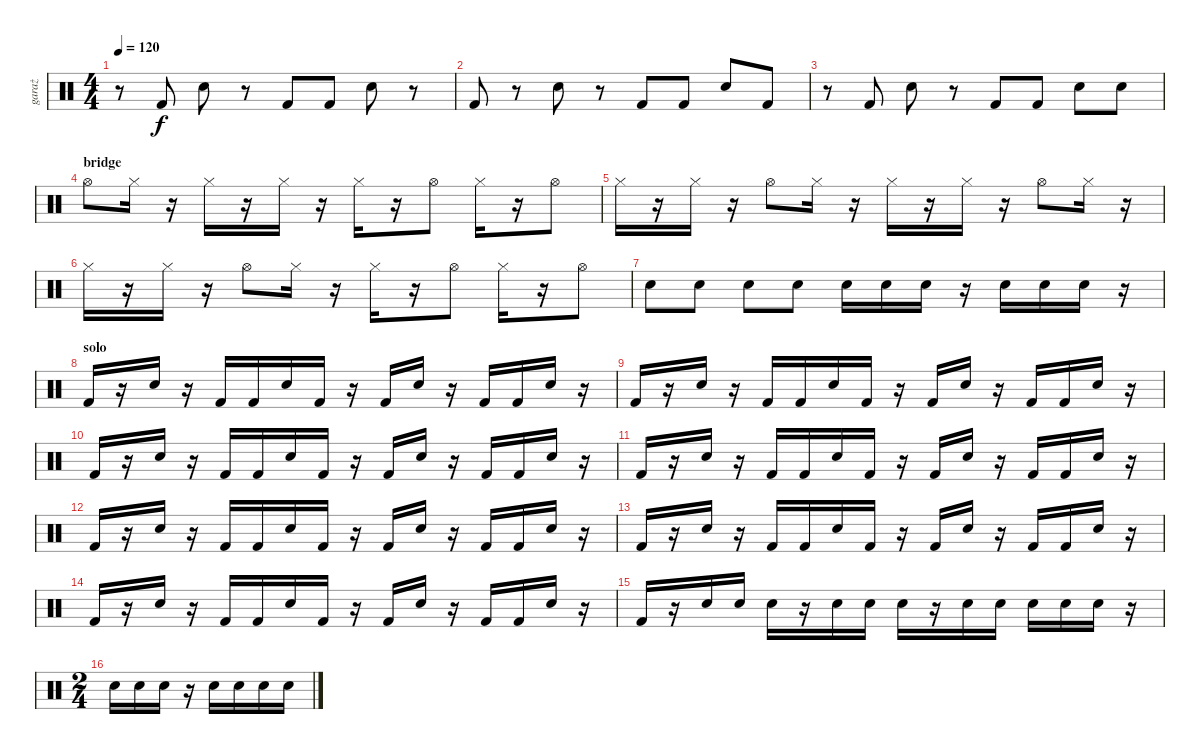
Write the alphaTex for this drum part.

\track ("garaż" "garaż") {instrument percussion}
\staff {score}
\articulation defaults
\ts (4 4)
\tempo 120
\clef neutral
\ks c
r.8{dy f} "Kick (hit) 2".8 "Snare (hit) 2".8 r.8 "Kick (hit) 2".8 "Kick (hit) 2".8 "Snare (hit) 2".8 r.8 |
"Kick (hit) 2".8 r.8 "Snare (hit) 2".8 r.8 "Kick (hit) 2".8 "Kick (hit) 2".8 "Snare (hit) 2".8 "Kick (hit) 2".8 |
r.8 "Kick (hit) 2".8 "Snare (hit) 2".8 r.8 "Kick (hit) 2".8 "Kick (hit) 2".8 "Snare (hit) 2".8 "Snare (hit) 2".8 |
\section ("" "bridge")
"Hi-Hat (open)".8 "Hi-Hat (closed)".16 r.16 "Hi-Hat (closed)".16 r.16 "Hi-Hat (closed)".16 r.16 "Hi-Hat (closed)".16 r.16 "Hi-Hat (open)".8 "Hi-Hat (closed)".16 r.16 "Hi-Hat (open)".8 |
"Hi-Hat (closed)".16 r.16 "Hi-Hat (closed)".16 r.16 "Hi-Hat (open)".8 "Hi-Hat (closed)".16 r.16 "Hi-Hat (closed)".16 r.16 "Hi-Hat (closed)".16 r.16 "Hi-Hat (open)".8 "Hi-Hat (closed)".16 r.16 |
"Hi-Hat (closed)".16 r.16 "Hi-Hat (closed)".16 r.16 "Hi-Hat (open)".8 "Hi-Hat (closed)".16 r.16 "Hi-Hat (closed)".16 r.16 "Hi-Hat (open)".8 "Hi-Hat (closed)".16 r.16 "Hi-Hat (open)".8 |
"Snare (hit) 2".8 "Snare (hit) 2".8 "Snare (hit) 2".8 "Snare (hit) 2".8 "Snare (hit) 2".16 "Snare (hit) 2".16 "Snare (hit) 2".16 r.16 "Snare (hit) 2".16 "Snare (hit) 2".16 "Snare (hit) 2".16 r.16 |
\section ("" "solo")
"Kick (hit) 2".16 r.16 "Snare (hit) 2".16 r.16 "Kick (hit) 2".16 "Kick (hit) 2".16 "Snare (hit) 2".16 "Kick (hit) 2".16 r.16 "Kick (hit) 2".16 "Snare (hit) 2".16 r.16 "Kick (hit) 2".16 "Kick (hit) 2".16 "Snare (hit) 2".16 r.16 |
"Kick (hit) 2".16 r.16 "Snare (hit) 2".16 r.16 "Kick (hit) 2".16 "Kick (hit) 2".16 "Snare (hit) 2".16 "Kick (hit) 2".16 r.16 "Kick (hit) 2".16 "Snare (hit) 2".16 r.16 "Kick (hit) 2".16 "Kick (hit) 2".16 "Snare (hit) 2".16 r.16 |
"Kick (hit) 2".16 r.16 "Snare (hit) 2".16 r.16 "Kick (hit) 2".16 "Kick (hit) 2".16 "Snare (hit) 2".16 "Kick (hit) 2".16 r.16 "Kick (hit) 2".16 "Snare (hit) 2".16 r.16 "Kick (hit) 2".16 "Kick (hit) 2".16 "Snare (hit) 2".16 r.16 |
"Kick (hit) 2".16 r.16 "Snare (hit) 2".16 r.16 "Kick (hit) 2".16 "Kick (hit) 2".16 "Snare (hit) 2".16 "Kick (hit) 2".16 r.16 "Kick (hit) 2".16 "Snare (hit) 2".16 r.16 "Kick (hit) 2".16 "Kick (hit) 2".16 "Snare (hit) 2".16 r.16 |
"Kick (hit) 2".16 r.16 "Snare (hit) 2".16 r.16 "Kick (hit) 2".16 "Kick (hit) 2".16 "Snare (hit) 2".16 "Kick (hit) 2".16 r.16 "Kick (hit) 2".16 "Snare (hit) 2".16 r.16 "Kick (hit) 2".16 "Kick (hit) 2".16 "Snare (hit) 2".16 r.16 |
"Kick (hit) 2".16 r.16 "Snare (hit) 2".16 r.16 "Kick (hit) 2".16 "Kick (hit) 2".16 "Snare (hit) 2".16 "Kick (hit) 2".16 r.16 "Kick (hit) 2".16 "Snare (hit) 2".16 r.16 "Kick (hit) 2".16 "Kick (hit) 2".16 "Snare (hit) 2".16 r.16 |
"Kick (hit) 2".16 r.16 "Snare (hit) 2".16 r.16 "Kick (hit) 2".16 "Kick (hit) 2".16 "Snare (hit) 2".16 "Kick (hit) 2".16 r.16 "Kick (hit) 2".16 "Snare (hit) 2".16 r.16 "Kick (hit) 2".16 "Kick (hit) 2".16 "Snare (hit) 2".16 r.16 |
"Kick (hit) 2".16 r.16 "Snare (hit) 2".16 "Snare (hit) 2".16 "Snare (hit) 2".16 r.16 "Snare (hit) 2".16 "Snare (hit) 2".16 "Snare (hit) 2".16 r.16 "Snare (hit) 2".16 "Snare (hit) 2".16 "Snare (hit) 2".16 "Snare (hit) 2".16 "Snare (hit) 2".16 r.16 |
\ts (2 4)
"Snare (hit) 2".16 "Snare (hit) 2".16 "Snare (hit) 2".16 r.16 "Snare (hit) 2".16 "Snare (hit) 2".16 "Snare (hit) 2".16 "Snare (hit) 2".16
